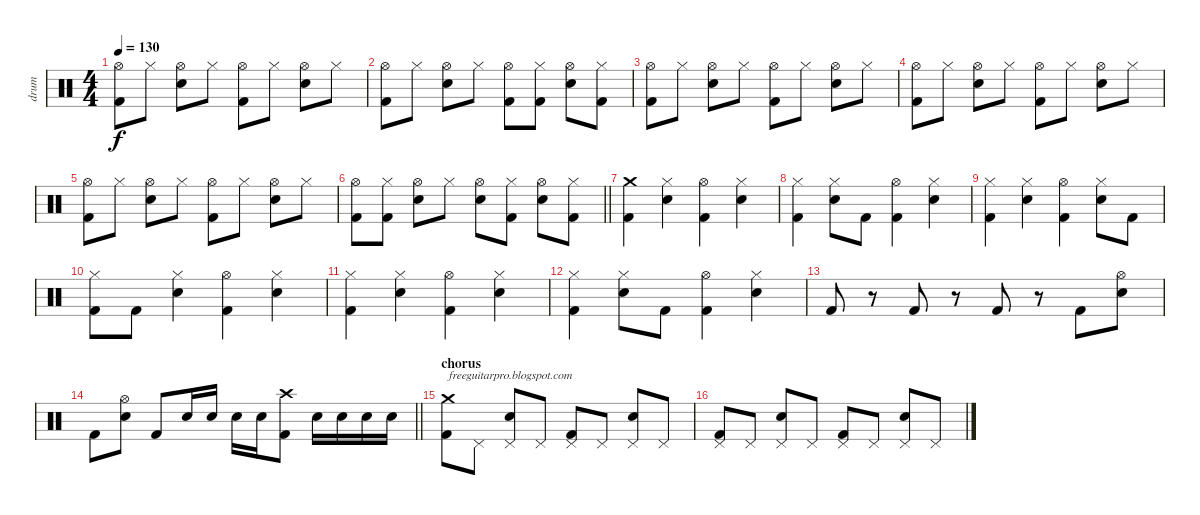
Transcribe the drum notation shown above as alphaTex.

\track ("drum" "drum") {instrument percussion}
\staff {score}
\articulation defaults
\ts (4 4)
\tempo 130
\clef neutral
\ks c
("Hi-Hat (open)" "Kick (hit) 2").8{dy f} "Hi-Hat (closed)".8 ("Hi-Hat (open)" "Electric Snare (hit)").8 "Hi-Hat (closed)".8 ("Hi-Hat (open)" "Kick (hit) 2").8 "Hi-Hat (closed)".8 ("Hi-Hat (open)" "Electric Snare (hit)").8 "Hi-Hat (closed)".8 |
("Hi-Hat (open)" "Kick (hit) 2").8 "Hi-Hat (closed)".8 ("Hi-Hat (open)" "Electric Snare (hit)").8 "Hi-Hat (closed)".8 ("Hi-Hat (open)" "Kick (hit) 2").8 ("Hi-Hat (closed)" "Kick (hit) 2").8 ("Hi-Hat (open)" "Electric Snare (hit)").8 ("Hi-Hat (closed)" "Kick (hit) 2").8 |
("Hi-Hat (open)" "Kick (hit) 2").8 "Hi-Hat (closed)".8 ("Hi-Hat (open)" "Electric Snare (hit)").8 "Hi-Hat (closed)".8 ("Hi-Hat (open)" "Kick (hit) 2").8 "Hi-Hat (closed)".8 ("Hi-Hat (open)" "Electric Snare (hit)").8 "Hi-Hat (closed)".8 |
("Hi-Hat (open)" "Kick (hit) 2").8 "Hi-Hat (closed)".8 ("Hi-Hat (open)" "Electric Snare (hit)").8 "Hi-Hat (closed)".8 ("Hi-Hat (open)" "Kick (hit) 2").8 "Hi-Hat (closed)".8 ("Hi-Hat (open)" "Electric Snare (hit)").8 "Hi-Hat (closed)".8 |
("Hi-Hat (open)" "Kick (hit) 2").8 "Hi-Hat (closed)".8 ("Hi-Hat (open)" "Electric Snare (hit)").8 "Hi-Hat (closed)".8 ("Hi-Hat (open)" "Kick (hit) 2").8 "Hi-Hat (closed)".8 ("Hi-Hat (open)" "Electric Snare (hit)").8 "Hi-Hat (closed)".8 |
\barLineRight lightlight
("Hi-Hat (open)" "Kick (hit) 2").8 ("Hi-Hat (closed)" "Kick (hit) 2").8 ("Hi-Hat (open)" "Electric Snare (hit)").8 "Hi-Hat (closed)".8 ("Hi-Hat (open)" "Electric Snare (hit)").8 ("Hi-Hat (closed)" "Kick (hit) 2").8 ("Hi-Hat (open)" "Electric Snare (hit)").8 ("Hi-Hat (closed)" "Kick (hit) 2").8 |
("Crash medium (hit)" "Kick (hit) 2").4 ("Hi-Hat (closed)" "Electric Snare (hit)").4 ("Hi-Hat (open)" "Kick (hit) 2").4 ("Hi-Hat (closed)" "Electric Snare (hit)").4 |
("Hi-Hat (closed)" "Kick (hit) 2").4 ("Hi-Hat (closed)" "Electric Snare (hit)").8 "Kick (hit) 2".8 ("Hi-Hat (open)" "Kick (hit) 2").4 ("Hi-Hat (closed)" "Electric Snare (hit)").4 |
("Hi-Hat (closed)" "Kick (hit) 2").4 ("Hi-Hat (closed)" "Electric Snare (hit)").4 ("Hi-Hat (open)" "Kick (hit) 2").4 ("Hi-Hat (closed)" "Electric Snare (hit)").8 "Kick (hit) 2".8 |
("Hi-Hat (closed)" "Kick (hit) 2").8 "Kick (hit) 2".8 ("Hi-Hat (closed)" "Electric Snare (hit)").4 ("Hi-Hat (open)" "Kick (hit) 2").4 ("Hi-Hat (closed)" "Electric Snare (hit)").4 |
("Hi-Hat (closed)" "Kick (hit) 2").4 ("Hi-Hat (closed)" "Electric Snare (hit)").4 ("Hi-Hat (open)" "Kick (hit) 2").4 ("Hi-Hat (closed)" "Electric Snare (hit)").4 |
("Hi-Hat (closed)" "Kick (hit) 2").4 ("Hi-Hat (closed)" "Electric Snare (hit)").8 "Kick (hit) 2".8 ("Hi-Hat (open)" "Kick (hit) 2").4 ("Hi-Hat (closed)" "Electric Snare (hit)").4 |
"Kick (hit) 2".8{volume 11} r.8 "Kick (hit) 2".8 r.8 "Kick (hit) 2".8 r.8 "Kick (hit) 2".8 ("Hi-Hat (open)" "Electric Snare (hit)").8 |
\barLineRight lightlight "Kick (hit) 2".8
("Hi-Hat (open)" "Electric Snare (hit)").8 "Kick (hit) 2".8 "Electric Snare (hit)".16 "Electric Snare (hit)".16 "Electric Snare (hit)".16 "Electric Snare (hit)".16 ("Crash high (hit)" "Kick (hit) 2").8 "Electric Snare (hit)".16 "Electric Snare (hit)".16 "Electric Snare (hit)".16 "Electric Snare (hit)".16 |
\section ("" "chorus")
("Crash medium (hit)" "Kick (hit) 2").8{txt "freeguitarpro.blogspot.com"} "Pedal Hi-Hat (hit)".8 ("Pedal Hi-Hat (hit)" "Electric Snare (hit)").8 "Pedal Hi-Hat (hit)".8 ("Pedal Hi-Hat (hit)" "Kick (hit) 2").8 "Pedal Hi-Hat (hit)".8 ("Pedal Hi-Hat (hit)" "Electric Snare (hit)").8 "Pedal Hi-Hat (hit)".8 |
("Pedal Hi-Hat (hit)" "Kick (hit) 2").8 "Pedal Hi-Hat (hit)".8 ("Pedal Hi-Hat (hit)" "Electric Snare (hit)").8 "Pedal Hi-Hat (hit)".8 ("Pedal Hi-Hat (hit)" "Kick (hit) 2").8 "Pedal Hi-Hat (hit)".8 ("Pedal Hi-Hat (hit)" "Electric Snare (hit)").8 "Pedal Hi-Hat (hit)".8
